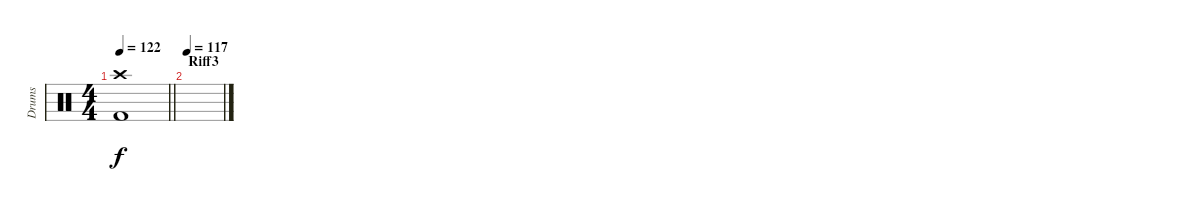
\track ("Drums" "Drums") {instrument percussion}
\staff {score}
\articulation defaults
\ts (4 4)
\tempo 122
\clef neutral
\barLineRight lightlight
\ks c
("Crash high (hit)" "Kick (hit) 2").1{dy f} |
\section ("" "Riff3")
\tempo 117
